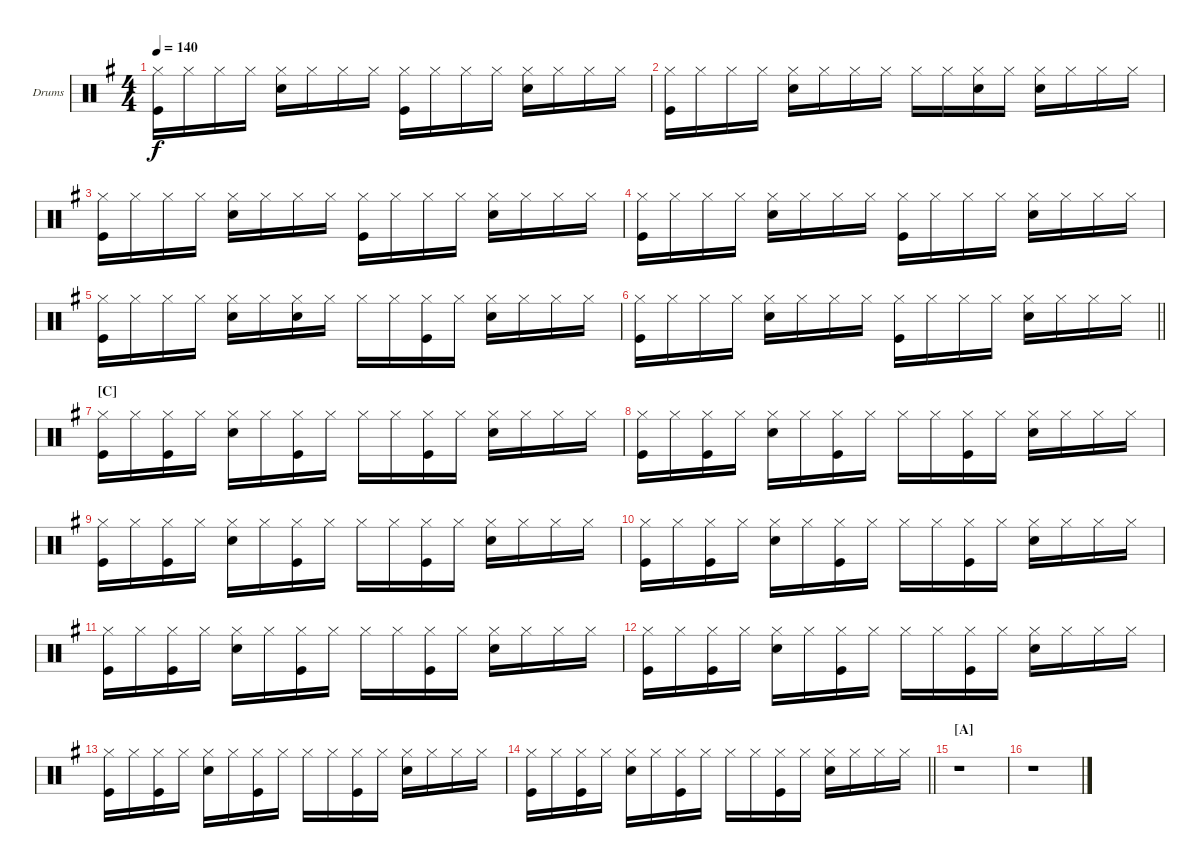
\bracketExtendMode groupsimilarinstruments
\firstSystemTrackNameOrientation horizontal
\otherSystemsTrackNameOrientation horizontal
\track ("Fabrizio Moretti" "Drums") {instrument percussion}
\staff {score}
\articulation defaults
\ts (4 4)
\tempo 140
\clef neutral
\ks g
("Hi-Hat (closed)" "Kick (hit)").16{dy f} "Hi-Hat (closed)".16 "Hi-Hat (closed)".16 "Hi-Hat (closed)".16 ("Snare (hit) 2" "Hi-Hat (closed)").16 "Hi-Hat (closed)".16 "Hi-Hat (closed)".16 "Hi-Hat (closed)".16 ("Hi-Hat (closed)" "Kick (hit)").16 "Hi-Hat (closed)".16 "Hi-Hat (closed)".16 "Hi-Hat (closed)".16 ("Snare (hit) 2" "Hi-Hat (closed)").16 "Hi-Hat (closed)".16 "Hi-Hat (closed)".16 "Hi-Hat (closed)".16 |
("Hi-Hat (closed)" "Kick (hit)").16 "Hi-Hat (closed)".16 "Hi-Hat (closed)".16 "Hi-Hat (closed)".16 ("Snare (hit) 2" "Hi-Hat (closed)").16 "Hi-Hat (closed)".16 "Hi-Hat (closed)".16 "Hi-Hat (closed)".16 "Hi-Hat (closed)".16 "Hi-Hat (closed)".16 ("Snare (hit) 2" "Hi-Hat (closed)").16 "Hi-Hat (closed)".16 ("Snare (hit) 2" "Hi-Hat (closed)").16 "Hi-Hat (closed)".16 "Hi-Hat (closed)".16 "Hi-Hat (closed)".16 |
("Hi-Hat (closed)" "Kick (hit)").16 "Hi-Hat (closed)".16 "Hi-Hat (closed)".16 "Hi-Hat (closed)".16 ("Snare (hit) 2" "Hi-Hat (closed)").16 "Hi-Hat (closed)".16 "Hi-Hat (closed)".16 "Hi-Hat (closed)".16 ("Hi-Hat (closed)" "Kick (hit)").16 "Hi-Hat (closed)".16 "Hi-Hat (closed)".16 "Hi-Hat (closed)".16 ("Snare (hit) 2" "Hi-Hat (closed)").16 "Hi-Hat (closed)".16 "Hi-Hat (closed)".16 "Hi-Hat (closed)".16 |
("Hi-Hat (closed)" "Kick (hit)").16 "Hi-Hat (closed)".16 "Hi-Hat (closed)".16 "Hi-Hat (closed)".16 ("Snare (hit) 2" "Hi-Hat (closed)").16 "Hi-Hat (closed)".16 "Hi-Hat (closed)".16 "Hi-Hat (closed)".16 ("Hi-Hat (closed)" "Kick (hit)").16 "Hi-Hat (closed)".16 "Hi-Hat (closed)".16 "Hi-Hat (closed)".16 ("Snare (hit) 2" "Hi-Hat (closed)").16 "Hi-Hat (closed)".16 "Hi-Hat (closed)".16 "Hi-Hat (closed)".16 |
("Hi-Hat (closed)" "Kick (hit)").16 "Hi-Hat (closed)".16 "Hi-Hat (closed)".16 "Hi-Hat (closed)".16 ("Snare (hit) 2" "Hi-Hat (closed)").16 "Hi-Hat (closed)".16 ("Snare (hit) 2" "Hi-Hat (closed)").16 "Hi-Hat (closed)".16 "Hi-Hat (closed)".16 "Hi-Hat (closed)".16 ("Hi-Hat (closed)" "Kick (hit)").16 "Hi-Hat (closed)".16 ("Snare (hit) 2" "Hi-Hat (closed)").16 "Hi-Hat (closed)".16 "Hi-Hat (closed)".16 "Hi-Hat (closed)".16 |
\barLineRight lightlight
("Hi-Hat (closed)" "Kick (hit)").16 "Hi-Hat (closed)".16 "Hi-Hat (closed)".16 "Hi-Hat (closed)".16 ("Snare (hit) 2" "Hi-Hat (closed)").16 "Hi-Hat (closed)".16 "Hi-Hat (closed)".16 "Hi-Hat (closed)".16 ("Hi-Hat (closed)" "Kick (hit)").16 "Hi-Hat (closed)".16 "Hi-Hat (closed)".16 "Hi-Hat (closed)".16 ("Snare (hit) 2" "Hi-Hat (closed)").16 "Hi-Hat (closed)".16 "Hi-Hat (closed)".16 "Hi-Hat (closed)".16 |
\section ("C" "")
("Hi-Hat (closed)" "Kick (hit)").16 "Hi-Hat (closed)".16 ("Hi-Hat (closed)" "Kick (hit)").16 "Hi-Hat (closed)".16 ("Snare (hit) 2" "Hi-Hat (closed)").16 "Hi-Hat (closed)".16 ("Hi-Hat (closed)" "Kick (hit)").16 "Hi-Hat (closed)".16 "Hi-Hat (closed)".16 "Hi-Hat (closed)".16 ("Hi-Hat (closed)" "Kick (hit)").16 "Hi-Hat (closed)".16 ("Snare (hit) 2" "Hi-Hat (closed)").16 "Hi-Hat (closed)".16 "Hi-Hat (closed)".16 "Hi-Hat (closed)".16 |
("Hi-Hat (closed)" "Kick (hit)").16 "Hi-Hat (closed)".16 ("Hi-Hat (closed)" "Kick (hit)").16 "Hi-Hat (closed)".16 ("Snare (hit) 2" "Hi-Hat (closed)").16 "Hi-Hat (closed)".16 ("Hi-Hat (closed)" "Kick (hit)").16 "Hi-Hat (closed)".16 "Hi-Hat (closed)".16 "Hi-Hat (closed)".16 ("Hi-Hat (closed)" "Kick (hit)").16 "Hi-Hat (closed)".16 ("Snare (hit) 2" "Hi-Hat (closed)").16 "Hi-Hat (closed)".16 "Hi-Hat (closed)".16 "Hi-Hat (closed)".16 |
("Hi-Hat (closed)" "Kick (hit)").16 "Hi-Hat (closed)".16 ("Hi-Hat (closed)" "Kick (hit)").16 "Hi-Hat (closed)".16 ("Snare (hit) 2" "Hi-Hat (closed)").16 "Hi-Hat (closed)".16 ("Hi-Hat (closed)" "Kick (hit)").16 "Hi-Hat (closed)".16 "Hi-Hat (closed)".16 "Hi-Hat (closed)".16 ("Hi-Hat (closed)" "Kick (hit)").16 "Hi-Hat (closed)".16 ("Snare (hit) 2" "Hi-Hat (closed)").16 "Hi-Hat (closed)".16 "Hi-Hat (closed)".16 "Hi-Hat (closed)".16 |
("Hi-Hat (closed)" "Kick (hit)").16 "Hi-Hat (closed)".16 ("Hi-Hat (closed)" "Kick (hit)").16 "Hi-Hat (closed)".16 ("Snare (hit) 2" "Hi-Hat (closed)").16 "Hi-Hat (closed)".16 ("Hi-Hat (closed)" "Kick (hit)").16 "Hi-Hat (closed)".16 "Hi-Hat (closed)".16 "Hi-Hat (closed)".16 ("Hi-Hat (closed)" "Kick (hit)").16 "Hi-Hat (closed)".16 ("Snare (hit) 2" "Hi-Hat (closed)").16 "Hi-Hat (closed)".16 "Hi-Hat (closed)".16 "Hi-Hat (closed)".16 |
("Hi-Hat (closed)" "Kick (hit)").16 "Hi-Hat (closed)".16 ("Hi-Hat (closed)" "Kick (hit)").16 "Hi-Hat (closed)".16 ("Snare (hit) 2" "Hi-Hat (closed)").16 "Hi-Hat (closed)".16 ("Hi-Hat (closed)" "Kick (hit)").16 "Hi-Hat (closed)".16 "Hi-Hat (closed)".16 "Hi-Hat (closed)".16 ("Hi-Hat (closed)" "Kick (hit)").16 "Hi-Hat (closed)".16 ("Snare (hit) 2" "Hi-Hat (closed)").16 "Hi-Hat (closed)".16 "Hi-Hat (closed)".16 "Hi-Hat (closed)".16 |
("Hi-Hat (closed)" "Kick (hit)").16 "Hi-Hat (closed)".16 ("Hi-Hat (closed)" "Kick (hit)").16 "Hi-Hat (closed)".16 ("Snare (hit) 2" "Hi-Hat (closed)").16 "Hi-Hat (closed)".16 ("Hi-Hat (closed)" "Kick (hit)").16 "Hi-Hat (closed)".16 "Hi-Hat (closed)".16 "Hi-Hat (closed)".16 ("Hi-Hat (closed)" "Kick (hit)").16 "Hi-Hat (closed)".16 ("Snare (hit) 2" "Hi-Hat (closed)").16 "Hi-Hat (closed)".16 "Hi-Hat (closed)".16 "Hi-Hat (closed)".16 |
("Hi-Hat (closed)" "Kick (hit)").16 "Hi-Hat (closed)".16 ("Hi-Hat (closed)" "Kick (hit)").16 "Hi-Hat (closed)".16 ("Snare (hit) 2" "Hi-Hat (closed)").16 "Hi-Hat (closed)".16 ("Hi-Hat (closed)" "Kick (hit)").16 "Hi-Hat (closed)".16 "Hi-Hat (closed)".16 "Hi-Hat (closed)".16 ("Hi-Hat (closed)" "Kick (hit)").16 "Hi-Hat (closed)".16 ("Snare (hit) 2" "Hi-Hat (closed)").16 "Hi-Hat (closed)".16 "Hi-Hat (closed)".16 "Hi-Hat (closed)".16 |
\barLineRight lightlight
("Hi-Hat (closed)" "Kick (hit)").16 "Hi-Hat (closed)".16 ("Hi-Hat (closed)" "Kick (hit)").16 "Hi-Hat (closed)".16 ("Snare (hit) 2" "Hi-Hat (closed)").16 "Hi-Hat (closed)".16 ("Hi-Hat (closed)" "Kick (hit)").16 "Hi-Hat (closed)".16 "Hi-Hat (closed)".16 "Hi-Hat (closed)".16 ("Hi-Hat (closed)" "Kick (hit)").16 "Hi-Hat (closed)".16 ("Snare (hit) 2" "Hi-Hat (closed)").16 "Hi-Hat (closed)".16 "Hi-Hat (closed)".16 "Hi-Hat (closed)".16 |
\section ("A" "")
r.1 |
r.1
